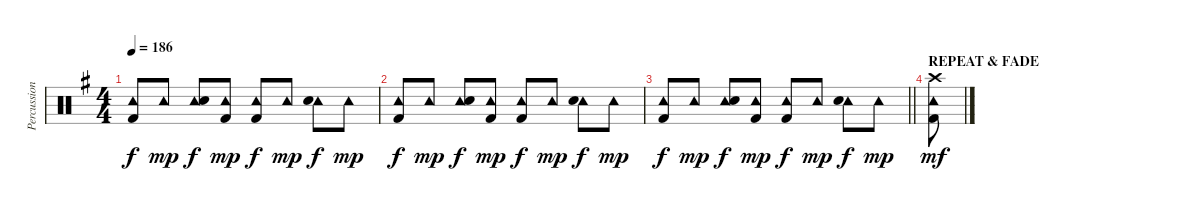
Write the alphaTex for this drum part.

\track ("Percussion" "Percussion") {instrument percussion}
\staff {score}
\articulation defaults
\ts (4 4)
\tempo 186
\clef neutral
\ks g
("Tambourine (hit)" "Kick (hit) 2").8{dy f} "Tambourine (hit)".8{dy mp} ("Tambourine (hit)" "Electric Snare (hit)").8{dy f} ("Tambourine (hit)" "Kick (hit) 2").8{dy mp} ("Tambourine (hit)" "Kick (hit) 2").8{dy f} "Tambourine (hit)".8{dy mp} ("Tambourine (hit)" "Electric Snare (hit)").8{dy f} "Tambourine (hit)".8{dy mp} |
("Tambourine (hit)" "Kick (hit) 2").8{dy f} "Tambourine (hit)".8{dy mp} ("Tambourine (hit)" "Electric Snare (hit)").8{dy f} ("Tambourine (hit)" "Kick (hit) 2").8{dy mp} ("Tambourine (hit)" "Kick (hit) 2").8{dy f} "Tambourine (hit)".8{dy mp} ("Tambourine (hit)" "Electric Snare (hit)").8{dy f} "Tambourine (hit)".8{dy mp} |
\barLineRight lightlight
("Tambourine (hit)" "Kick (hit) 2").8{dy f} "Tambourine (hit)".8{dy mp} ("Tambourine (hit)" "Electric Snare (hit)").8{dy f} ("Tambourine (hit)" "Kick (hit) 2").8{dy mp} ("Tambourine (hit)" "Kick (hit) 2").8{dy f} "Tambourine (hit)".8{dy mp} ("Tambourine (hit)" "Electric Snare (hit)").8{dy f} "Tambourine (hit)".8{dy mp} |
\section ("" "REPEAT & FADE")
("Crash high (hit)" "Tambourine (hit)" "Kick (hit) 2").8{dy mf}
